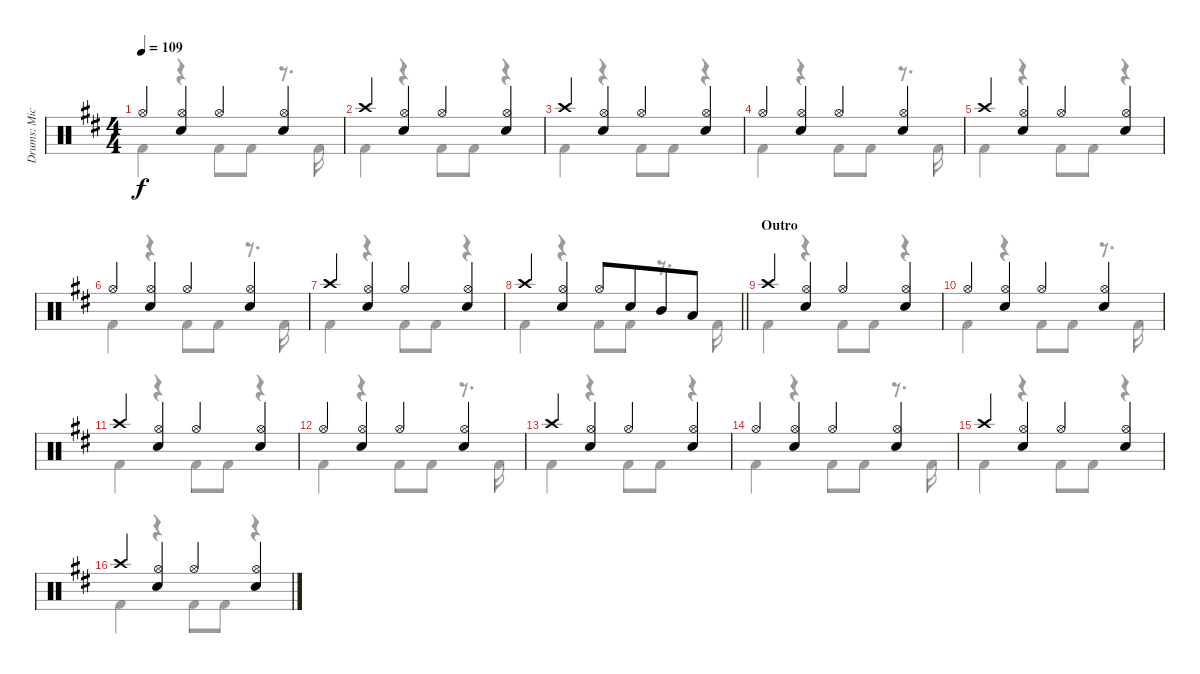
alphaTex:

\track ("Drums: Mick" "Drums: Mic") {instrument percussion}
\staff {score}
\articulation defaults
\voice
\ts (4 4)
\tempo 109
\clef neutral
\ks d "Hi-Hat (open)".4{dy f}
("Hi-Hat (open)" "Snare (hit) 2").4 "Hi-Hat (open)".4 ("Hi-Hat (open)" "Snare (hit) 2").4 |
"Crash high (hit)".4 ("Hi-Hat (open)" "Snare (hit) 2").4 "Hi-Hat (open)".4 ("Hi-Hat (open)" "Snare (hit) 2").4 |
"Crash high (hit)".4 ("Hi-Hat (open)" "Snare (hit) 2").4 "Hi-Hat (open)".4 ("Hi-Hat (open)" "Snare (hit) 2").4 |
"Hi-Hat (open)".4 ("Hi-Hat (open)" "Snare (hit) 2").4 "Hi-Hat (open)".4 ("Hi-Hat (open)" "Snare (hit) 2").4 |
"Crash high (hit)".4 ("Hi-Hat (open)" "Snare (hit) 2").4 "Hi-Hat (open)".4 ("Hi-Hat (open)" "Snare (hit) 2").4 |
"Hi-Hat (open)".4 ("Hi-Hat (open)" "Snare (hit) 2").4 "Hi-Hat (open)".4 ("Hi-Hat (open)" "Snare (hit) 2").4 |
"Crash high (hit)".4 ("Hi-Hat (open)" "Snare (hit) 2").4 "Hi-Hat (open)".4 ("Hi-Hat (open)" "Snare (hit) 2").4 |
\barLineRight lightlight "Crash high (hit)".4
("Hi-Hat (open)" "Snare (hit) 2").4 "Hi-Hat (open)".8 "Snare (hit) 2".8{beam merge} "Mid Tom (hit)".8 "Low Tom (hit)".8 |
\section ("" "Outro")
"Crash high (hit)".4 ("Hi-Hat (open)" "Snare (hit) 2").4 "Hi-Hat (open)".4 ("Hi-Hat (open)" "Snare (hit) 2").4 |
"Hi-Hat (open)".4 ("Hi-Hat (open)" "Snare (hit) 2").4 "Hi-Hat (open)".4 ("Hi-Hat (open)" "Snare (hit) 2").4 |
"Crash high (hit)".4 ("Hi-Hat (open)" "Snare (hit) 2").4 "Hi-Hat (open)".4 ("Hi-Hat (open)" "Snare (hit) 2").4 |
"Hi-Hat (open)".4 ("Hi-Hat (open)" "Snare (hit) 2").4 "Hi-Hat (open)".4 ("Hi-Hat (open)" "Snare (hit) 2").4 |
"Crash high (hit)".4 ("Hi-Hat (open)" "Snare (hit) 2").4 "Hi-Hat (open)".4 ("Hi-Hat (open)" "Snare (hit) 2").4 |
"Hi-Hat (open)".4 ("Hi-Hat (open)" "Snare (hit) 2").4 "Hi-Hat (open)".4 ("Hi-Hat (open)" "Snare (hit) 2").4 |
"Crash high (hit)".4 ("Hi-Hat (open)" "Snare (hit) 2").4 "Hi-Hat (open)".4 ("Hi-Hat (open)" "Snare (hit) 2").4 |
"Crash high (hit)".4 ("Hi-Hat (open)" "Snare (hit) 2").4 "Hi-Hat (open)".4 ("Hi-Hat (open)" "Snare (hit) 2").4
\voice
\clef neutral
\ottava regular
\simile none
\ks d "Kick (hit) 2".4{dy f}
r.4 "Kick (hit) 2".8 "Kick (hit) 2".8 r.8{d} "Kick (hit) 2".16 |
"Kick (hit) 2".4 r.4 "Kick (hit) 2".8 "Kick (hit) 2".8 r.4 |
"Kick (hit) 2".4 r.4 "Kick (hit) 2".8 "Kick (hit) 2".8 r.4 |
"Kick (hit) 2".4 r.4 "Kick (hit) 2".8 "Kick (hit) 2".8 r.8{d} "Kick (hit) 2".16 |
"Kick (hit) 2".4 r.4 "Kick (hit) 2".8 "Kick (hit) 2".8 r.4 |
"Kick (hit) 2".4 r.4 "Kick (hit) 2".8 "Kick (hit) 2".8 r.8{d} "Kick (hit) 2".16 |
"Kick (hit) 2".4 r.4 "Kick (hit) 2".8 "Kick (hit) 2".8 r.4 |
\barLineRight lightlight "Kick (hit) 2".4
r.4 "Kick (hit) 2".8 "Kick (hit) 2".8 r.8{d} "Kick (hit) 2".16 |
"Kick (hit) 2".4 r.4 "Kick (hit) 2".8 "Kick (hit) 2".8 r.4 |
"Kick (hit) 2".4 r.4 "Kick (hit) 2".8 "Kick (hit) 2".8 r.8{d} "Kick (hit) 2".16 |
"Kick (hit) 2".4 r.4 "Kick (hit) 2".8 "Kick (hit) 2".8 r.4 |
"Kick (hit) 2".4 r.4 "Kick (hit) 2".8 "Kick (hit) 2".8 r.8{d} "Kick (hit) 2".16 |
"Kick (hit) 2".4 r.4 "Kick (hit) 2".8 "Kick (hit) 2".8 r.4 |
"Kick (hit) 2".4 r.4 "Kick (hit) 2".8 "Kick (hit) 2".8 r.8{d} "Kick (hit) 2".16 |
"Kick (hit) 2".4 r.4 "Kick (hit) 2".8 "Kick (hit) 2".8 r.4 |
"Kick (hit) 2".4 r.4 "Kick (hit) 2".8 "Kick (hit) 2".8 r.4
